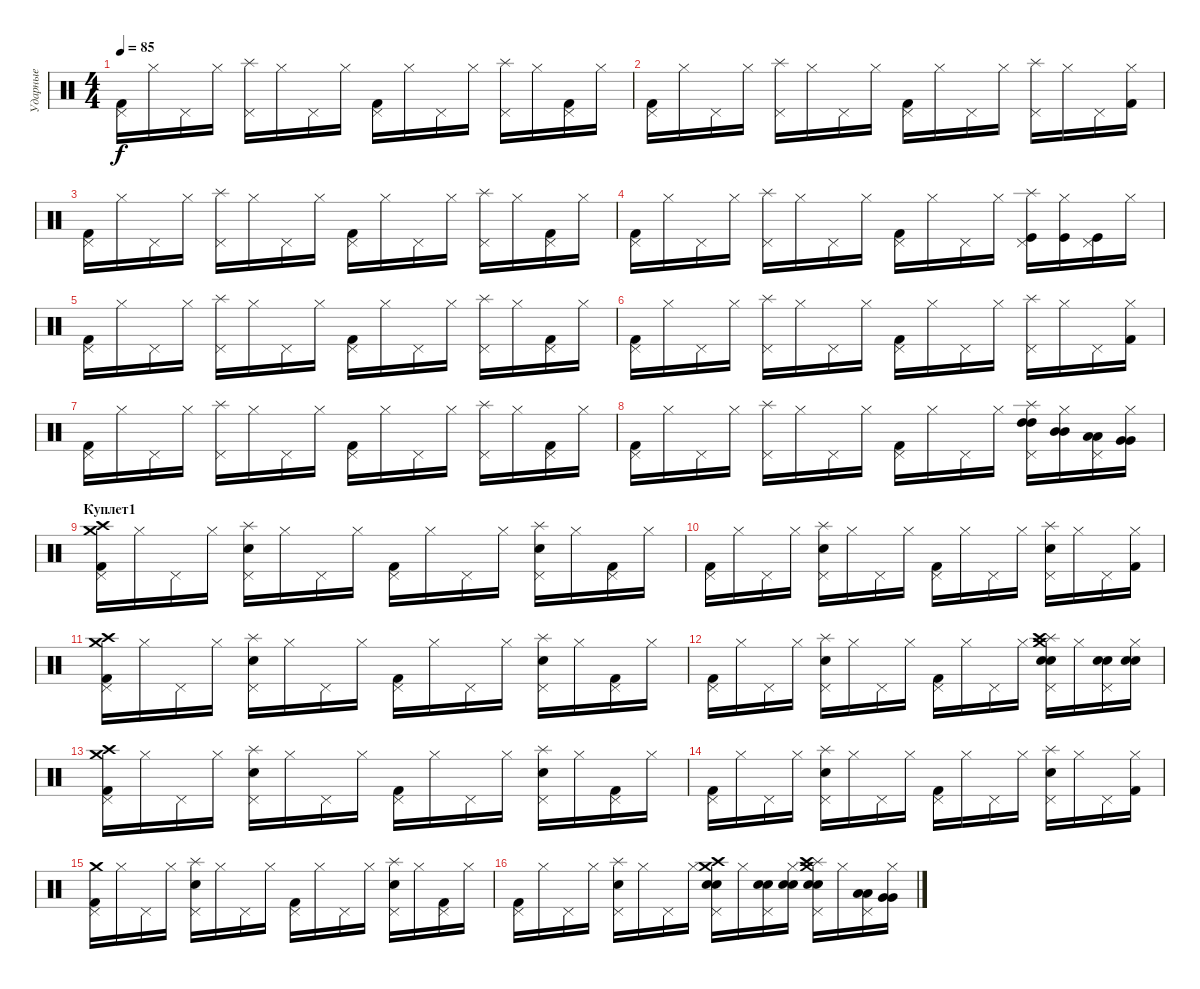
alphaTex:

\track ("Ударные" "Ударные") {instrument percussion}
\staff {score}
\articulation defaults
\ts (4 4)
\tempo 85
\clef neutral
\ks c
("Kick (hit) 2" "Pedal Hi-Hat (hit)").16{dy f} "Hi-Hat (closed)".16 "Pedal Hi-Hat (hit)".16 "Hi-Hat (closed)".16 ("Pedal Hi-Hat (hit)" "Splash (hit)").16 "Hi-Hat (closed)".16 "Pedal Hi-Hat (hit)".16 "Hi-Hat (closed)".16 ("Kick (hit) 2" "Pedal Hi-Hat (hit)").16 "Hi-Hat (closed)".16 "Pedal Hi-Hat (hit)".16 "Hi-Hat (closed)".16 ("Pedal Hi-Hat (hit)" "Splash (hit)").16 "Hi-Hat (closed)".16 ("Kick (hit) 2" "Pedal Hi-Hat (hit)").16 "Hi-Hat (closed)".16 |
("Kick (hit) 2" "Pedal Hi-Hat (hit)").16 "Hi-Hat (closed)".16 "Pedal Hi-Hat (hit)".16 "Hi-Hat (closed)".16 ("Pedal Hi-Hat (hit)" "Splash (hit)").16 "Hi-Hat (closed)".16 "Pedal Hi-Hat (hit)".16 "Hi-Hat (closed)".16 ("Kick (hit) 2" "Pedal Hi-Hat (hit)").16 "Hi-Hat (closed)".16 "Pedal Hi-Hat (hit)".16 "Hi-Hat (closed)".16 ("Pedal Hi-Hat (hit)" "Splash (hit)").16 "Hi-Hat (closed)".16 "Pedal Hi-Hat (hit)".16 ("Kick (hit) 2" "Hi-Hat (closed)").16 |
("Kick (hit) 2" "Pedal Hi-Hat (hit)").16 "Hi-Hat (closed)".16 "Pedal Hi-Hat (hit)".16 "Hi-Hat (closed)".16 ("Pedal Hi-Hat (hit)" "Splash (hit)").16 "Hi-Hat (closed)".16 "Pedal Hi-Hat (hit)".16 "Hi-Hat (closed)".16 ("Kick (hit) 2" "Pedal Hi-Hat (hit)").16 "Hi-Hat (closed)".16 "Pedal Hi-Hat (hit)".16 "Hi-Hat (closed)".16 ("Pedal Hi-Hat (hit)" "Splash (hit)").16 "Hi-Hat (closed)".16 ("Kick (hit) 2" "Pedal Hi-Hat (hit)").16 "Hi-Hat (closed)".16 |
("Kick (hit) 2" "Pedal Hi-Hat (hit)").16 "Hi-Hat (closed)".16 "Pedal Hi-Hat (hit)".16 "Hi-Hat (closed)".16 ("Pedal Hi-Hat (hit)" "Splash (hit)").16 "Hi-Hat (closed)".16 "Pedal Hi-Hat (hit)".16 "Hi-Hat (closed)".16 ("Kick (hit) 2" "Pedal Hi-Hat (hit)").16 "Hi-Hat (closed)".16 "Pedal Hi-Hat (hit)".16 "Hi-Hat (closed)".16 ("Kick (hit)" "Pedal Hi-Hat (hit)" "Splash (hit)").16 ("Kick (hit)" "Hi-Hat (closed)").16 ("Kick (hit)" "Pedal Hi-Hat (hit)").16 "Hi-Hat (closed)".16 |
("Kick (hit) 2" "Pedal Hi-Hat (hit)").16 "Hi-Hat (closed)".16 "Pedal Hi-Hat (hit)".16 "Hi-Hat (closed)".16 ("Pedal Hi-Hat (hit)" "Splash (hit)").16 "Hi-Hat (closed)".16 "Pedal Hi-Hat (hit)".16 "Hi-Hat (closed)".16 ("Kick (hit) 2" "Pedal Hi-Hat (hit)").16 "Hi-Hat (closed)".16 "Pedal Hi-Hat (hit)".16 "Hi-Hat (closed)".16 ("Pedal Hi-Hat (hit)" "Splash (hit)").16 "Hi-Hat (closed)".16 ("Kick (hit) 2" "Pedal Hi-Hat (hit)").16 "Hi-Hat (closed)".16 |
("Kick (hit) 2" "Pedal Hi-Hat (hit)").16 "Hi-Hat (closed)".16 "Pedal Hi-Hat (hit)".16 "Hi-Hat (closed)".16 ("Pedal Hi-Hat (hit)" "Splash (hit)").16 "Hi-Hat (closed)".16 "Pedal Hi-Hat (hit)".16 "Hi-Hat (closed)".16 ("Kick (hit) 2" "Pedal Hi-Hat (hit)").16 "Hi-Hat (closed)".16 "Pedal Hi-Hat (hit)".16 "Hi-Hat (closed)".16 ("Pedal Hi-Hat (hit)" "Splash (hit)").16 "Hi-Hat (closed)".16 "Pedal Hi-Hat (hit)".16 ("Kick (hit) 2" "Hi-Hat (closed)").16 |
("Kick (hit) 2" "Pedal Hi-Hat (hit)").16 "Hi-Hat (closed)".16 "Pedal Hi-Hat (hit)".16 "Hi-Hat (closed)".16 ("Pedal Hi-Hat (hit)" "Splash (hit)").16 "Hi-Hat (closed)".16 "Pedal Hi-Hat (hit)".16 "Hi-Hat (closed)".16 ("Kick (hit) 2" "Pedal Hi-Hat (hit)").16 "Hi-Hat (closed)".16 "Pedal Hi-Hat (hit)".16 "Hi-Hat (closed)".16 ("Pedal Hi-Hat (hit)" "Splash (hit)").16 "Hi-Hat (closed)".16 ("Kick (hit) 2" "Pedal Hi-Hat (hit)").16 "Hi-Hat (closed)".16 |
("Kick (hit) 2" "Pedal Hi-Hat (hit)").16 "Hi-Hat (closed)".16 "Pedal Hi-Hat (hit)".16 "Hi-Hat (closed)".16 ("Pedal Hi-Hat (hit)" "Splash (hit)").16 "Hi-Hat (closed)".16 "Pedal Hi-Hat (hit)".16 "Hi-Hat (closed)".16 ("Kick (hit) 2" "Pedal Hi-Hat (hit)").16 "Hi-Hat (closed)".16 "Pedal Hi-Hat (hit)".16 "Hi-Hat (closed)".16 ("Pedal Hi-Hat (hit)" "Splash (hit)" "High Tom (hit)" "High Tom (hit)").16 ("Hi-Hat (closed)" "Mid Tom (hit)" "Mid Tom (hit)").16 ("Pedal Hi-Hat (hit)" "Low Tom (hit)" "Low Tom (hit)").16 ("Hi-Hat (closed)" "Very Low Tom (hit)" "Very Low Tom (hit)").16 |
\section ("" "Куплет1")
("Kick (hit) 2" "Pedal Hi-Hat (hit)" "Crash high (hit)" "Crash medium (hit)").16 "Hi-Hat (closed)".16 "Pedal Hi-Hat (hit)".16 "Hi-Hat (closed)".16 ("Snare (hit) 2" "Pedal Hi-Hat (hit)" "Splash (hit)").16 "Hi-Hat (closed)".16 "Pedal Hi-Hat (hit)".16 "Hi-Hat (closed)".16 ("Kick (hit) 2" "Pedal Hi-Hat (hit)").16 "Hi-Hat (closed)".16 "Pedal Hi-Hat (hit)".16 "Hi-Hat (closed)".16 ("Snare (hit) 2" "Pedal Hi-Hat (hit)" "Splash (hit)").16 "Hi-Hat (closed)".16 ("Kick (hit) 2" "Pedal Hi-Hat (hit)").16 "Hi-Hat (closed)".16 |
("Kick (hit) 2" "Pedal Hi-Hat (hit)").16 "Hi-Hat (closed)".16 "Pedal Hi-Hat (hit)".16 "Hi-Hat (closed)".16 ("Snare (hit) 2" "Pedal Hi-Hat (hit)" "Splash (hit)").16 "Hi-Hat (closed)".16 "Pedal Hi-Hat (hit)".16 "Hi-Hat (closed)".16 ("Kick (hit) 2" "Pedal Hi-Hat (hit)").16 "Hi-Hat (closed)".16 "Pedal Hi-Hat (hit)".16 "Hi-Hat (closed)".16 ("Snare (hit) 2" "Pedal Hi-Hat (hit)" "Splash (hit)").16 "Hi-Hat (closed)".16 "Pedal Hi-Hat (hit)".16 ("Kick (hit) 2" "Hi-Hat (closed)").16 |
("Kick (hit) 2" "Pedal Hi-Hat (hit)" "Crash medium (hit)" "Crash high (hit)").16 "Hi-Hat (closed)".16 "Pedal Hi-Hat (hit)".16 "Hi-Hat (closed)".16 ("Snare (hit) 2" "Pedal Hi-Hat (hit)" "Splash (hit)").16 "Hi-Hat (closed)".16 "Pedal Hi-Hat (hit)".16 "Hi-Hat (closed)".16 ("Kick (hit) 2" "Pedal Hi-Hat (hit)").16 "Hi-Hat (closed)".16 "Pedal Hi-Hat (hit)".16 "Hi-Hat (closed)".16 ("Snare (hit) 2" "Pedal Hi-Hat (hit)" "Splash (hit)").16 "Hi-Hat (closed)".16 ("Kick (hit) 2" "Pedal Hi-Hat (hit)").16 "Hi-Hat (closed)".16 |
("Kick (hit) 2" "Pedal Hi-Hat (hit)").16 "Hi-Hat (closed)".16 "Pedal Hi-Hat (hit)".16 "Hi-Hat (closed)".16 ("Snare (hit) 2" "Pedal Hi-Hat (hit)" "Splash (hit)").16 "Hi-Hat (closed)".16 "Pedal Hi-Hat (hit)".16 "Hi-Hat (closed)".16 ("Kick (hit) 2" "Pedal Hi-Hat (hit)").16 "Hi-Hat (closed)".16 "Pedal Hi-Hat (hit)".16 "Hi-Hat (closed)".16 ("Snare (hit) 2" "Snare (hit) 2" "Pedal Hi-Hat (hit)" "Splash (hit)" "Crash medium (hit)" "Crash high (hit)").16 "Hi-Hat (closed)".16 ("Snare (hit) 2" "Snare (hit) 2" "Pedal Hi-Hat (hit)").16 ("Snare (hit) 2" "Snare (hit) 2" "Hi-Hat (closed)").16 |
("Kick (hit) 2" "Pedal Hi-Hat (hit)" "Crash medium (hit)" "Crash high (hit)").16 "Hi-Hat (closed)".16 "Pedal Hi-Hat (hit)".16 "Hi-Hat (closed)".16 ("Snare (hit) 2" "Pedal Hi-Hat (hit)" "Splash (hit)").16 "Hi-Hat (closed)".16 "Pedal Hi-Hat (hit)".16 "Hi-Hat (closed)".16 ("Kick (hit) 2" "Pedal Hi-Hat (hit)").16 "Hi-Hat (closed)".16 "Pedal Hi-Hat (hit)".16 "Hi-Hat (closed)".16 ("Snare (hit) 2" "Pedal Hi-Hat (hit)" "Splash (hit)").16 "Hi-Hat (closed)".16 ("Kick (hit) 2" "Pedal Hi-Hat (hit)").16 "Hi-Hat (closed)".16 |
("Kick (hit) 2" "Pedal Hi-Hat (hit)").16 "Hi-Hat (closed)".16 "Pedal Hi-Hat (hit)".16 "Hi-Hat (closed)".16 ("Snare (hit) 2" "Pedal Hi-Hat (hit)" "Splash (hit)").16 "Hi-Hat (closed)".16 "Pedal Hi-Hat (hit)".16 "Hi-Hat (closed)".16 ("Kick (hit) 2" "Pedal Hi-Hat (hit)").16 "Hi-Hat (closed)".16 "Pedal Hi-Hat (hit)".16 "Hi-Hat (closed)".16 ("Snare (hit) 2" "Pedal Hi-Hat (hit)" "Splash (hit)").16 "Hi-Hat (closed)".16 "Pedal Hi-Hat (hit)".16 ("Kick (hit) 2" "Hi-Hat (closed)").16 |
("Kick (hit) 2" "Pedal Hi-Hat (hit)" "Crash medium (hit)").16 "Hi-Hat (closed)".16 "Pedal Hi-Hat (hit)".16 "Hi-Hat (closed)".16 ("Snare (hit) 2" "Pedal Hi-Hat (hit)" "Splash (hit)").16 "Hi-Hat (closed)".16 "Pedal Hi-Hat (hit)".16 "Hi-Hat (closed)".16 ("Kick (hit) 2" "Pedal Hi-Hat (hit)").16 "Hi-Hat (closed)".16 "Pedal Hi-Hat (hit)".16 "Hi-Hat (closed)".16 ("Snare (hit) 2" "Pedal Hi-Hat (hit)" "Splash (hit)").16 "Hi-Hat (closed)".16 ("Kick (hit) 2" "Pedal Hi-Hat (hit)").16 "Hi-Hat (closed)".16 |
("Kick (hit) 2" "Pedal Hi-Hat (hit)").16 "Hi-Hat (closed)".16 "Pedal Hi-Hat (hit)".16 "Hi-Hat (closed)".16 ("Snare (hit) 2" "Pedal Hi-Hat (hit)" "Splash (hit)").16 "Hi-Hat (closed)".16 "Pedal Hi-Hat (hit)".16 "Hi-Hat (closed)".16 ("Snare (hit) 2" "Snare (hit) 2" "Pedal Hi-Hat (hit)" "Crash medium (hit)" "Crash high (hit)").16 "Hi-Hat (closed)".16 ("Snare (hit) 2" "Snare (hit) 2" "Pedal Hi-Hat (hit)").16 ("Snare (hit) 2" "Snare (hit) 2" "Hi-Hat (closed)").16 ("Snare (hit) 2" "Snare (hit) 2" "Pedal Hi-Hat (hit)" "Splash (hit)" "Crash medium (hit)" "Crash high (hit)").16 "Hi-Hat (closed)".16 ("Low Tom (hit)" "Low Tom (hit)" "Pedal Hi-Hat (hit)").16 ("Very Low Tom (hit)" "Very Low Tom (hit)" "Hi-Hat (closed)").16
